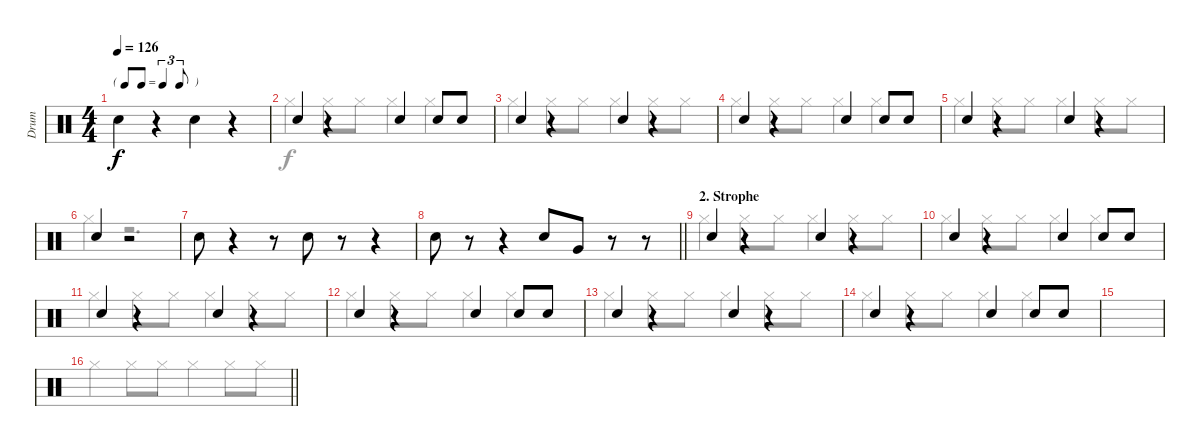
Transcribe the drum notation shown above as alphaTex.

\track ("Drum" "Drum") {instrument percussion}
\staff {score}
\articulation defaults
\voice
\ts (4 4)
\tf triplet8th
\tempo 126
\clef neutral
\ks c "Snare (hit) 2".4{dy f}
r.4 "Snare (hit) 2".4 r.4 |
"Snare (hit) 2".4 r.4 "Snare (hit) 2".4 "Snare (hit) 2".8 "Snare (hit) 2".8 |
"Snare (hit) 2".4 r.4 "Snare (hit) 2".4 r.4 |
"Snare (hit) 2".4 r.4 "Snare (hit) 2".4 "Snare (hit) 2".8 "Snare (hit) 2".8 |
"Snare (hit) 2".4 r.4 "Snare (hit) 2".4 r.4 |
"Snare (hit) 2".4 r.2 |
"Snare (hit) 2".8 r.4 r.8 "Snare (hit) 2".8 r.8 r.4 |
\barLineRight lightlight "Snare (hit) 2".8
r.8 r.4 "Snare (hit) 2".8 "Very Low Tom (hit)".8 r.8 r.8 |
\section ("" "2. Strophe")
"Snare (hit) 2".4 r.4 "Snare (hit) 2".4 r.4 |
"Snare (hit) 2".4 r.4 "Snare (hit) 2".4 "Snare (hit) 2".8 "Snare (hit) 2".8 |
"Snare (hit) 2".4 r.4 "Snare (hit) 2".4 r.4 |
"Snare (hit) 2".4 r.4 "Snare (hit) 2".4 "Snare (hit) 2".8 "Snare (hit) 2".8 |
"Snare (hit) 2".4 r.4 "Snare (hit) 2".4 r.4 |
"Snare (hit) 2".4 r.4 "Snare (hit) 2".4 "Snare (hit) 2".8 "Snare (hit) 2".8 |
|
\barLineRight lightlight
\voice
\clef neutral
\ottava regular
\simile none
\ks c "Hi-Hat (closed)".4{dy f} "Hi-Hat (closed)".8 "Hi-Hat (closed)".8 "Hi-Hat (closed)".4 "Hi-Hat (closed)".8 "Hi-Hat (closed)".8
|
"Hi-Hat (closed)".4 "Hi-Hat (closed)".8 "Hi-Hat (closed)".8 "Hi-Hat (closed)".4 "Hi-Hat (closed)".4 |
"Hi-Hat (closed)".4 "Hi-Hat (closed)".8 "Hi-Hat (closed)".8 "Hi-Hat (closed)".4 "Hi-Hat (closed)".8 "Hi-Hat (closed)".8 |
"Hi-Hat (closed)".4 "Hi-Hat (closed)".8 "Hi-Hat (closed)".8 "Hi-Hat (closed)".4 "Hi-Hat (closed)".4 |
"Hi-Hat (closed)".4 "Hi-Hat (closed)".8 "Hi-Hat (closed)".8 "Hi-Hat (closed)".4 "Hi-Hat (closed)".8 "Hi-Hat (closed)".8 |
"Hi-Hat (closed)".4 r.2{d} |
|
\barLineRight lightlight
|
"Hi-Hat (closed)".4 "Hi-Hat (closed)".8 "Hi-Hat (closed)".8 "Hi-Hat (closed)".4 "Hi-Hat (closed)".8 "Hi-Hat (closed)".8 |
"Hi-Hat (closed)".4 "Hi-Hat (closed)".8 "Hi-Hat (closed)".8 "Hi-Hat (closed)".4 "Hi-Hat (closed)".4 |
"Hi-Hat (closed)".4 "Hi-Hat (closed)".8 "Hi-Hat (closed)".8 "Hi-Hat (closed)".4 "Hi-Hat (closed)".8 "Hi-Hat (closed)".8 |
"Hi-Hat (closed)".4 "Hi-Hat (closed)".8 "Hi-Hat (closed)".8 "Hi-Hat (closed)".4 "Hi-Hat (closed)".4 |
"Hi-Hat (closed)".4 "Hi-Hat (closed)".8 "Hi-Hat (closed)".8 "Hi-Hat (closed)".4 "Hi-Hat (closed)".8 "Hi-Hat (closed)".8 |
"Hi-Hat (closed)".4 "Hi-Hat (closed)".8 "Hi-Hat (closed)".8 "Hi-Hat (closed)".4 "Hi-Hat (closed)".4 |
|
\barLineRight lightlight
